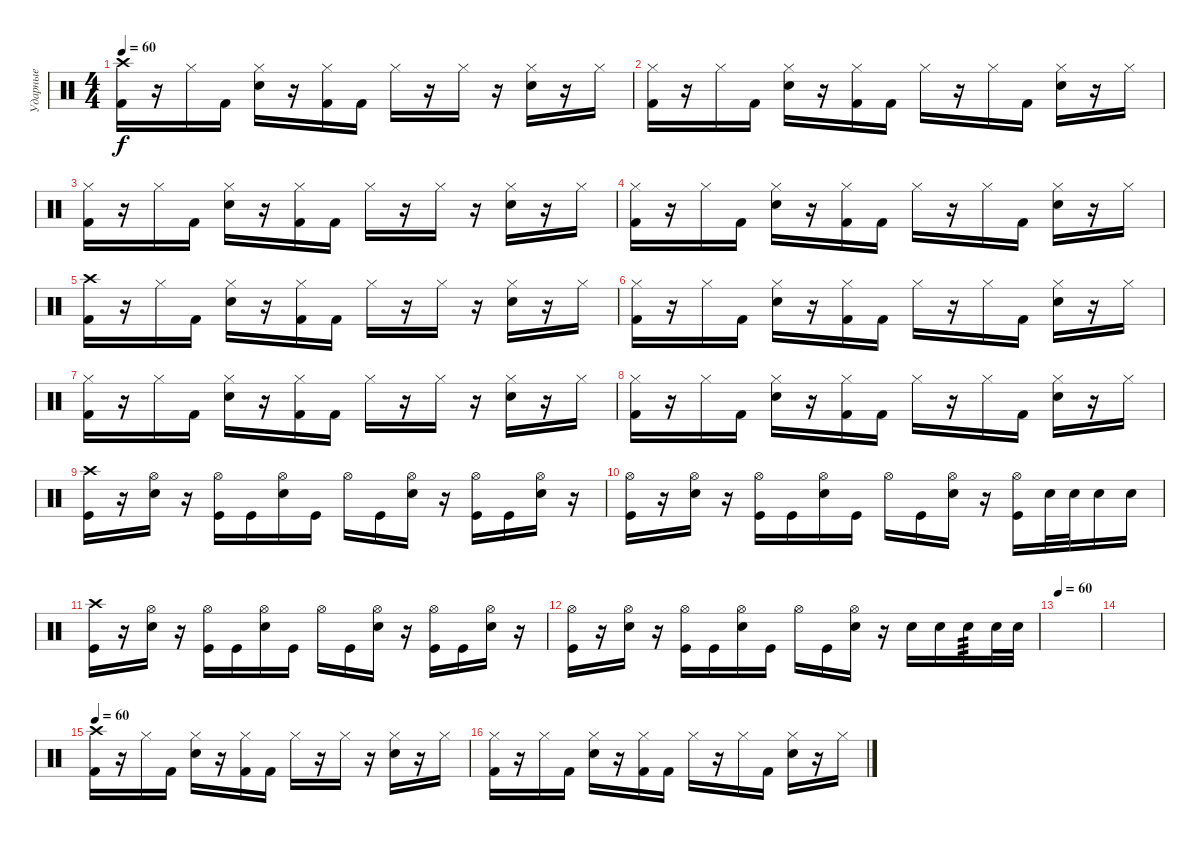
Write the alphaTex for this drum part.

\track ("Ударные" "Ударные") {instrument percussion}
\staff {score}
\articulation defaults
\ts (4 4)
\tempo 60
\clef neutral
\ks c
("Crash high (hit)" "Kick (hit) 2").16{dy f} r.16 "Hi-Hat (closed)".16 "Kick (hit) 2".16 ("Hi-Hat (closed)" "Electric Snare (hit)").16 r.16 ("Hi-Hat (closed)" "Kick (hit) 2").16 "Kick (hit) 2".16 "Hi-Hat (closed)".16 r.16 "Hi-Hat (closed)".16 r.16 ("Hi-Hat (closed)" "Electric Snare (hit)").16 r.16 "Hi-Hat (closed)".16 |
("Hi-Hat (closed)" "Kick (hit) 2").16 r.16 "Hi-Hat (closed)".16 "Kick (hit) 2".16 ("Hi-Hat (closed)" "Electric Snare (hit)").16 r.16 ("Hi-Hat (closed)" "Kick (hit) 2").16 "Kick (hit) 2".16 "Hi-Hat (closed)".16 r.16 "Hi-Hat (closed)".16 "Kick (hit) 2".16 ("Hi-Hat (closed)" "Electric Snare (hit)").16 r.16 "Hi-Hat (closed)".16 |
("Hi-Hat (closed)" "Kick (hit) 2").16 r.16 "Hi-Hat (closed)".16 "Kick (hit) 2".16 ("Hi-Hat (closed)" "Electric Snare (hit)").16 r.16 ("Hi-Hat (closed)" "Kick (hit) 2").16 "Kick (hit) 2".16 "Hi-Hat (closed)".16 r.16 "Hi-Hat (closed)".16 r.16 ("Hi-Hat (closed)" "Electric Snare (hit)").16 r.16 "Hi-Hat (closed)".16 |
("Hi-Hat (closed)" "Kick (hit) 2").16 r.16 "Hi-Hat (closed)".16 "Kick (hit) 2".16 ("Hi-Hat (closed)" "Electric Snare (hit)").16 r.16 ("Hi-Hat (closed)" "Kick (hit) 2").16 "Kick (hit) 2".16 "Hi-Hat (closed)".16 r.16 "Hi-Hat (closed)".16 "Kick (hit) 2".16 ("Hi-Hat (closed)" "Electric Snare (hit)").16 r.16 "Hi-Hat (closed)".16 |
("Crash high (hit)" "Kick (hit) 2").16 r.16 "Hi-Hat (closed)".16 "Kick (hit) 2".16 ("Hi-Hat (closed)" "Electric Snare (hit)").16 r.16 ("Hi-Hat (closed)" "Kick (hit) 2").16 "Kick (hit) 2".16 "Hi-Hat (closed)".16 r.16 "Hi-Hat (closed)".16 r.16 ("Hi-Hat (closed)" "Electric Snare (hit)").16 r.16 "Hi-Hat (closed)".16 |
("Hi-Hat (closed)" "Kick (hit) 2").16 r.16 "Hi-Hat (closed)".16 "Kick (hit) 2".16 ("Hi-Hat (closed)" "Electric Snare (hit)").16 r.16 ("Hi-Hat (closed)" "Kick (hit) 2").16 "Kick (hit) 2".16 "Hi-Hat (closed)".16 r.16 "Hi-Hat (closed)".16 "Kick (hit) 2".16 ("Hi-Hat (closed)" "Electric Snare (hit)").16 r.16 "Hi-Hat (closed)".16 |
("Hi-Hat (closed)" "Kick (hit) 2").16 r.16 "Hi-Hat (closed)".16 "Kick (hit) 2".16 ("Hi-Hat (closed)" "Electric Snare (hit)").16 r.16 ("Hi-Hat (closed)" "Kick (hit) 2").16 "Kick (hit) 2".16 "Hi-Hat (closed)".16 r.16 "Hi-Hat (closed)".16 r.16 ("Hi-Hat (closed)" "Electric Snare (hit)").16 r.16 "Hi-Hat (closed)".16 |
("Hi-Hat (closed)" "Kick (hit) 2").16 r.16 "Hi-Hat (closed)".16 "Kick (hit) 2".16 ("Hi-Hat (closed)" "Electric Snare (hit)").16 r.16 ("Hi-Hat (closed)" "Kick (hit) 2").16 "Kick (hit) 2".16 "Hi-Hat (closed)".16 r.16 "Hi-Hat (closed)".16 "Kick (hit) 2".16 ("Hi-Hat (closed)" "Electric Snare (hit)").16 r.16 "Hi-Hat (closed)".16 |
("Crash high (hit)" "Kick (hit)").16 r.16 ("Hi-Hat (open)" "Electric Snare (hit)").16 r.16 ("Hi-Hat (open)" "Kick (hit)").16 "Kick (hit)".16 ("Hi-Hat (open)" "Electric Snare (hit)").16 "Kick (hit)".16 "Hi-Hat (open)".16 "Kick (hit)".16 ("Hi-Hat (open)" "Electric Snare (hit)").16 r.16 ("Hi-Hat (open)" "Kick (hit)").16 "Kick (hit)".16 ("Hi-Hat (open)" "Electric Snare (hit)").16 r.16 |
("Hi-Hat (open)" "Kick (hit)").16 r.16 ("Hi-Hat (open)" "Electric Snare (hit)").16 r.16 ("Hi-Hat (open)" "Kick (hit)").16 "Kick (hit)".16 ("Hi-Hat (open)" "Electric Snare (hit)").16 "Kick (hit)".16 "Hi-Hat (open)".16 "Kick (hit)".16 ("Hi-Hat (open)" "Electric Snare (hit)").16 r.16 ("Hi-Hat (open)" "Kick (hit)").16 "Electric Snare (hit)".32 "Electric Snare (hit)".32 "Electric Snare (hit)".16 "Electric Snare (hit)".16 |
("Crash high (hit)" "Kick (hit)").16 r.16 ("Hi-Hat (open)" "Electric Snare (hit)").16 r.16 ("Hi-Hat (open)" "Kick (hit)").16 "Kick (hit)".16 ("Hi-Hat (open)" "Electric Snare (hit)").16 "Kick (hit)".16 "Hi-Hat (open)".16 "Kick (hit)".16 ("Hi-Hat (open)" "Electric Snare (hit)").16 r.16 ("Hi-Hat (open)" "Kick (hit)").16 "Kick (hit)".16 ("Hi-Hat (open)" "Electric Snare (hit)").16 r.16 |
("Hi-Hat (open)" "Kick (hit)").16 r.16 ("Hi-Hat (open)" "Electric Snare (hit)").16 r.16 ("Hi-Hat (open)" "Kick (hit)").16 "Kick (hit)".16 ("Hi-Hat (open)" "Electric Snare (hit)").16 "Kick (hit)".16 "Hi-Hat (open)".16 "Kick (hit)".16 ("Hi-Hat (open)" "Electric Snare (hit)").16 r.16 "Electric Snare (hit)".16 "Electric Snare (hit)".16 "Electric Snare (hit)".16{tp 3} "Electric Snare (hit)".32 "Electric Snare (hit)".32 |
\tempo 60
|
|
\tempo 60
("Crash high (hit)" "Kick (hit) 2").16 r.16 "Hi-Hat (closed)".16 "Kick (hit) 2".16 ("Hi-Hat (closed)" "Electric Snare (hit)").16 r.16 ("Hi-Hat (closed)" "Kick (hit) 2").16 "Kick (hit) 2".16 "Hi-Hat (closed)".16 r.16 "Hi-Hat (closed)".16 r.16 ("Hi-Hat (closed)" "Electric Snare (hit)").16 r.16 "Hi-Hat (closed)".16 |
("Hi-Hat (closed)" "Kick (hit) 2").16 r.16 "Hi-Hat (closed)".16 "Kick (hit) 2".16 ("Hi-Hat (closed)" "Electric Snare (hit)").16 r.16 ("Hi-Hat (closed)" "Kick (hit) 2").16 "Kick (hit) 2".16 "Hi-Hat (closed)".16 r.16 "Hi-Hat (closed)".16 "Kick (hit) 2".16 ("Hi-Hat (closed)" "Electric Snare (hit)").16 r.16 "Hi-Hat (closed)".16
